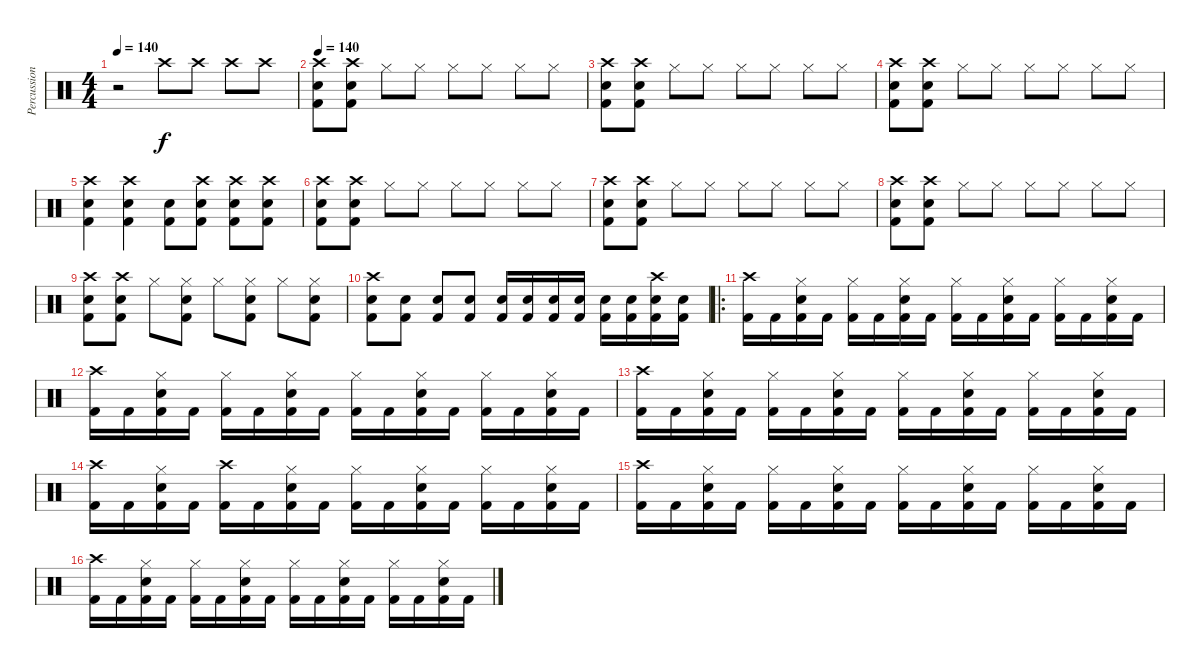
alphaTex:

\track ("Percussion" "Percussion") {instrument percussion}
\staff {score}
\articulation defaults
\ts (4 4)
\tempo 140
\clef neutral
\ks c
r.2{dy f} "Crash high (hit)".8 "Crash high (hit)".8 "Crash high (hit)".8 "Crash high (hit)".8 |
\tempo 140
\ks aminor
("Crash high (hit)" "Snare (hit) 2" "Kick (hit) 2").8 ("Crash high (hit)" "Snare (hit) 2" "Kick (hit) 2").8 "Hi-Hat (closed)".8 "Hi-Hat (closed)".8 "Hi-Hat (closed)".8 "Hi-Hat (closed)".8 "Hi-Hat (closed)".8 "Hi-Hat (closed)".8 |
("Crash high (hit)" "Snare (hit) 2" "Kick (hit) 2").8 ("Crash high (hit)" "Snare (hit) 2" "Kick (hit) 2").8 "Hi-Hat (closed)".8 "Hi-Hat (closed)".8 "Hi-Hat (closed)".8 "Hi-Hat (closed)".8 "Hi-Hat (closed)".8 "Hi-Hat (closed)".8 |
("Crash high (hit)" "Snare (hit) 2" "Kick (hit) 2").8 ("Crash high (hit)" "Snare (hit) 2" "Kick (hit) 2").8 "Hi-Hat (closed)".8 "Hi-Hat (closed)".8 "Hi-Hat (closed)".8 "Hi-Hat (closed)".8 "Hi-Hat (closed)".8 "Hi-Hat (closed)".8 |
("Crash high (hit)" "Snare (hit) 2" "Kick (hit) 2").4 ("Crash high (hit)" "Snare (hit) 2" "Kick (hit) 2").4 ("Snare (hit) 2" "Kick (hit) 2").8 ("Crash high (hit)" "Snare (hit) 2" "Kick (hit) 2").8 ("Crash high (hit)" "Snare (hit) 2" "Kick (hit) 2").8 ("Crash high (hit)" "Snare (hit) 2" "Kick (hit) 2").8 |
("Crash high (hit)" "Snare (hit) 2" "Kick (hit) 2").8 ("Crash high (hit)" "Snare (hit) 2" "Kick (hit) 2").8 "Hi-Hat (closed)".8 "Hi-Hat (closed)".8 "Hi-Hat (closed)".8 "Hi-Hat (closed)".8 "Hi-Hat (closed)".8 "Hi-Hat (closed)".8 |
("Crash high (hit)" "Snare (hit) 2" "Kick (hit) 2").8 ("Crash high (hit)" "Snare (hit) 2" "Kick (hit) 2").8 "Hi-Hat (closed)".8 "Hi-Hat (closed)".8 "Hi-Hat (closed)".8 "Hi-Hat (closed)".8 "Hi-Hat (closed)".8 "Hi-Hat (closed)".8 |
("Crash high (hit)" "Snare (hit) 2" "Kick (hit) 2").8 ("Crash high (hit)" "Snare (hit) 2" "Kick (hit) 2").8 "Hi-Hat (closed)".8 "Hi-Hat (closed)".8 "Hi-Hat (closed)".8 "Hi-Hat (closed)".8 "Hi-Hat (closed)".8 "Hi-Hat (closed)".8 |
("Crash high (hit)" "Snare (hit) 2" "Kick (hit) 2").8 ("Crash high (hit)" "Snare (hit) 2" "Kick (hit) 2").8 "Hi-Hat (closed)".8 ("Hi-Hat (closed)" "Snare (hit) 2" "Kick (hit) 2").8 "Hi-Hat (closed)".8 ("Hi-Hat (closed)" "Snare (hit) 2" "Kick (hit) 2").8 "Hi-Hat (closed)".8 ("Hi-Hat (closed)" "Snare (hit) 2" "Kick (hit) 2").8 |
("Crash high (hit)" "Snare (hit) 2" "Kick (hit) 2").8 ("Snare (hit) 2" "Kick (hit) 2").8 ("Snare (hit) 2" "Kick (hit) 2").8 ("Snare (hit) 2" "Kick (hit) 2").8 ("Snare (hit) 2" "Kick (hit) 2").16 ("Snare (hit) 2" "Kick (hit) 2").16 ("Snare (hit) 2" "Kick (hit) 2").16 ("Snare (hit) 2" "Kick (hit) 2").16 ("Snare (hit) 2" "Kick (hit) 2").16 ("Snare (hit) 2" "Kick (hit) 2").16 ("Crash high (hit)" "Snare (hit) 2" "Kick (hit) 2").16 ("Snare (hit) 2" "Kick (hit) 2").16 |
\ro
("Crash high (hit)" "Kick (hit) 2").16 "Kick (hit) 2".16 ("Hi-Hat (closed)" "Snare (hit) 2" "Kick (hit) 2").16 "Kick (hit) 2".16 ("Hi-Hat (closed)" "Kick (hit) 2").16 "Kick (hit) 2".16 ("Hi-Hat (closed)" "Snare (hit) 2" "Kick (hit) 2").16 "Kick (hit) 2".16 ("Hi-Hat (closed)" "Kick (hit) 2").16 "Kick (hit) 2".16 ("Hi-Hat (closed)" "Snare (hit) 2" "Kick (hit) 2").16 "Kick (hit) 2".16 ("Hi-Hat (closed)" "Kick (hit) 2").16 "Kick (hit) 2".16 ("Hi-Hat (closed)" "Snare (hit) 2" "Kick (hit) 2").16 "Kick (hit) 2".16 |
("Crash high (hit)" "Kick (hit) 2").16 "Kick (hit) 2".16 ("Hi-Hat (closed)" "Snare (hit) 2" "Kick (hit) 2").16 "Kick (hit) 2".16 ("Hi-Hat (closed)" "Kick (hit) 2").16 "Kick (hit) 2".16 ("Hi-Hat (closed)" "Snare (hit) 2" "Kick (hit) 2").16 "Kick (hit) 2".16 ("Hi-Hat (closed)" "Kick (hit) 2").16 "Kick (hit) 2".16 ("Hi-Hat (closed)" "Snare (hit) 2" "Kick (hit) 2").16 "Kick (hit) 2".16 ("Hi-Hat (closed)" "Kick (hit) 2").16 "Kick (hit) 2".16 ("Hi-Hat (closed)" "Snare (hit) 2" "Kick (hit) 2").16 "Kick (hit) 2".16 |
("Crash high (hit)" "Kick (hit) 2").16 "Kick (hit) 2".16 ("Hi-Hat (closed)" "Snare (hit) 2" "Kick (hit) 2").16 "Kick (hit) 2".16 ("Hi-Hat (closed)" "Kick (hit) 2").16 "Kick (hit) 2".16 ("Hi-Hat (closed)" "Snare (hit) 2" "Kick (hit) 2").16 "Kick (hit) 2".16 ("Hi-Hat (closed)" "Kick (hit) 2").16 "Kick (hit) 2".16 ("Hi-Hat (closed)" "Snare (hit) 2" "Kick (hit) 2").16 "Kick (hit) 2".16 ("Hi-Hat (closed)" "Kick (hit) 2").16 "Kick (hit) 2".16 ("Hi-Hat (closed)" "Snare (hit) 2" "Kick (hit) 2").16 "Kick (hit) 2".16 |
("Crash high (hit)" "Kick (hit) 2").16 "Kick (hit) 2".16 ("Hi-Hat (closed)" "Snare (hit) 2" "Kick (hit) 2").16 "Kick (hit) 2".16 ("Crash high (hit)" "Kick (hit) 2").16 "Kick (hit) 2".16 ("Hi-Hat (closed)" "Snare (hit) 2" "Kick (hit) 2").16 "Kick (hit) 2".16 ("Hi-Hat (closed)" "Kick (hit) 2").16 "Kick (hit) 2".16 ("Hi-Hat (closed)" "Snare (hit) 2" "Kick (hit) 2").16 "Kick (hit) 2".16 ("Hi-Hat (closed)" "Kick (hit) 2").16 "Kick (hit) 2".16 ("Hi-Hat (closed)" "Snare (hit) 2" "Kick (hit) 2").16 "Kick (hit) 2".16 |
("Crash high (hit)" "Kick (hit) 2").16 "Kick (hit) 2".16 ("Hi-Hat (closed)" "Snare (hit) 2" "Kick (hit) 2").16 "Kick (hit) 2".16 ("Hi-Hat (closed)" "Kick (hit) 2").16 "Kick (hit) 2".16 ("Hi-Hat (closed)" "Snare (hit) 2" "Kick (hit) 2").16 "Kick (hit) 2".16 ("Hi-Hat (closed)" "Kick (hit) 2").16 "Kick (hit) 2".16 ("Hi-Hat (closed)" "Snare (hit) 2" "Kick (hit) 2").16 "Kick (hit) 2".16 ("Hi-Hat (closed)" "Kick (hit) 2").16 "Kick (hit) 2".16 ("Hi-Hat (closed)" "Snare (hit) 2" "Kick (hit) 2").16 "Kick (hit) 2".16 |
("Crash high (hit)" "Kick (hit) 2").16 "Kick (hit) 2".16 ("Hi-Hat (closed)" "Snare (hit) 2" "Kick (hit) 2").16 "Kick (hit) 2".16 ("Hi-Hat (closed)" "Kick (hit) 2").16 "Kick (hit) 2".16 ("Hi-Hat (closed)" "Snare (hit) 2" "Kick (hit) 2").16 "Kick (hit) 2".16 ("Hi-Hat (closed)" "Kick (hit) 2").16 "Kick (hit) 2".16 ("Hi-Hat (closed)" "Snare (hit) 2" "Kick (hit) 2").16 "Kick (hit) 2".16 ("Hi-Hat (closed)" "Kick (hit) 2").16 "Kick (hit) 2".16 ("Hi-Hat (closed)" "Snare (hit) 2" "Kick (hit) 2").16 "Kick (hit) 2".16
